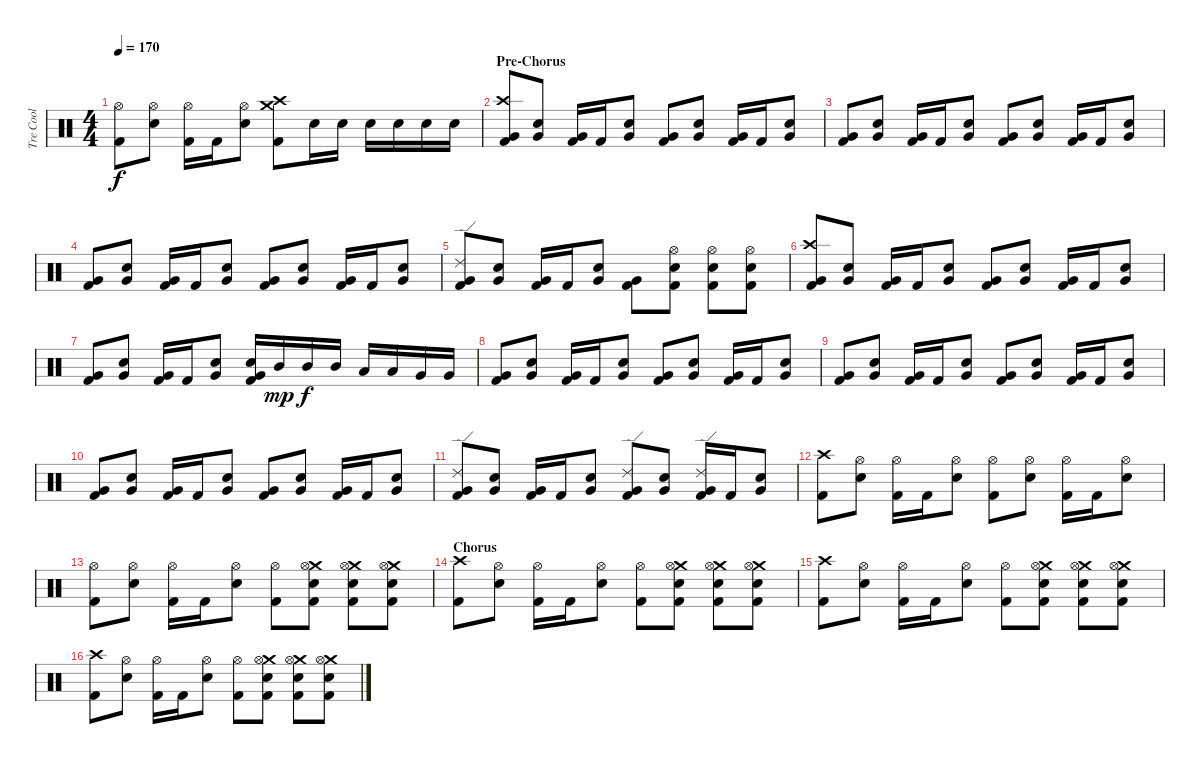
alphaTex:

\track ("Tre Cool" "Tre Cool") {instrument percussion}
\staff {score}
\articulation defaults
\ts (4 4)
\tempo 170
\clef neutral
\ks c
("Hi-Hat (open)" "Kick (hit) 2").8{dy f} ("Hi-Hat (open)" "Electric Snare (hit)").8 ("Hi-Hat (open)" "Kick (hit) 2").16 "Kick (hit) 2".16 ("Hi-Hat (open)" "Electric Snare (hit)").8 ("Crash high (hit)" "Crash medium (hit)" "Kick (hit) 2").8 "Electric Snare (hit)".16 "Electric Snare (hit)".16 "Electric Snare (hit)".16 "Electric Snare (hit)".16 "Electric Snare (hit)".16 "Electric Snare (hit)".16 |
\section ("" "Pre-Chorus")
("Crash high (hit)" "Very Low Tom (hit)" "Kick (hit) 2").8 ("Electric Snare (hit)" "Very Low Tom (hit)").8 ("Very Low Tom (hit)" "Kick (hit) 2").16 "Kick (hit) 2".16 ("Electric Snare (hit)" "Very Low Tom (hit)").8 ("Very Low Tom (hit)" "Kick (hit) 2").8 ("Electric Snare (hit)" "Very Low Tom (hit)").8 ("Very Low Tom (hit)" "Kick (hit) 2").16 "Kick (hit) 2".16 ("Electric Snare (hit)" "Very Low Tom (hit)").8 |
("Very Low Tom (hit)" "Kick (hit) 2").8 ("Electric Snare (hit)" "Very Low Tom (hit)").8 ("Very Low Tom (hit)" "Kick (hit) 2").16 "Kick (hit) 2".16 ("Electric Snare (hit)" "Very Low Tom (hit)").8 ("Very Low Tom (hit)" "Kick (hit) 2").8 ("Electric Snare (hit)" "Very Low Tom (hit)").8 ("Very Low Tom (hit)" "Kick (hit) 2").16 "Kick (hit) 2".16 ("Electric Snare (hit)" "Very Low Tom (hit)").8 |
("Very Low Tom (hit)" "Kick (hit) 2").8 ("Electric Snare (hit)" "Very Low Tom (hit)").8 ("Very Low Tom (hit)" "Kick (hit) 2").16 "Kick (hit) 2".16 ("Electric Snare (hit)" "Very Low Tom (hit)").8 ("Very Low Tom (hit)" "Kick (hit) 2").8 ("Electric Snare (hit)" "Very Low Tom (hit)").8 ("Very Low Tom (hit)" "Kick (hit) 2").16 "Kick (hit) 2".16 ("Electric Snare (hit)" "Very Low Tom (hit)").8 |
("Ride (edge) 2" "Very Low Tom (hit)" "Kick (hit) 2").8 ("Electric Snare (hit)" "Very Low Tom (hit)").8 ("Very Low Tom (hit)" "Kick (hit) 2").16 "Kick (hit) 2".16 ("Electric Snare (hit)" "Very Low Tom (hit)").8 ("Very Low Tom (hit)" "Kick (hit) 2").8 ("Hi-Hat (open)" "Electric Snare (hit)" "Kick (hit) 2").8 ("Hi-Hat (open)" "Electric Snare (hit)" "Kick (hit) 2").8 ("Hi-Hat (open)" "Electric Snare (hit)" "Kick (hit) 2").8 |
("Crash high (hit)" "Very Low Tom (hit)" "Kick (hit) 2").8 ("Electric Snare (hit)" "Very Low Tom (hit)").8 ("Very Low Tom (hit)" "Kick (hit) 2").16 "Kick (hit) 2".16 ("Electric Snare (hit)" "Very Low Tom (hit)").8 ("Very Low Tom (hit)" "Kick (hit) 2").8 ("Electric Snare (hit)" "Very Low Tom (hit)").8 ("Very Low Tom (hit)" "Kick (hit) 2").16 "Kick (hit) 2".16 ("Electric Snare (hit)" "Very Low Tom (hit)").8 |
("Very Low Tom (hit)" "Kick (hit) 2").8 ("Electric Snare (hit)" "Very Low Tom (hit)").8 ("Very Low Tom (hit)" "Kick (hit) 2").16 "Kick (hit) 2".16 ("Electric Snare (hit)" "Very Low Tom (hit)").8 ("Electric Snare (hit)" "Very Low Tom (hit)" "Kick (hit) 2").16 "Mid Tom (hit)".16{dy mp} "Mid Tom (hit)".16{dy f} "Mid Tom (hit)".16 "Low Tom (hit)".16 "Low Tom (hit)".16 "Very Low Tom (hit)".16 "Very Low Tom (hit)".16 |
("Very Low Tom (hit)" "Kick (hit) 2").8 ("Electric Snare (hit)" "Very Low Tom (hit)").8 ("Very Low Tom (hit)" "Kick (hit) 2").16 "Kick (hit) 2".16 ("Electric Snare (hit)" "Very Low Tom (hit)").8 ("Very Low Tom (hit)" "Kick (hit) 2").8 ("Electric Snare (hit)" "Very Low Tom (hit)").8 ("Very Low Tom (hit)" "Kick (hit) 2").16 "Kick (hit) 2".16 ("Electric Snare (hit)" "Very Low Tom (hit)").8 |
("Very Low Tom (hit)" "Kick (hit) 2").8 ("Electric Snare (hit)" "Very Low Tom (hit)").8 ("Very Low Tom (hit)" "Kick (hit) 2").16 "Kick (hit) 2".16 ("Electric Snare (hit)" "Very Low Tom (hit)").8 ("Very Low Tom (hit)" "Kick (hit) 2").8 ("Electric Snare (hit)" "Very Low Tom (hit)").8 ("Very Low Tom (hit)" "Kick (hit) 2").16 "Kick (hit) 2".16 ("Electric Snare (hit)" "Very Low Tom (hit)").8 |
("Very Low Tom (hit)" "Kick (hit) 2").8 ("Electric Snare (hit)" "Very Low Tom (hit)").8 ("Very Low Tom (hit)" "Kick (hit) 2").16 "Kick (hit) 2".16 ("Electric Snare (hit)" "Very Low Tom (hit)").8 ("Very Low Tom (hit)" "Kick (hit) 2").8 ("Electric Snare (hit)" "Very Low Tom (hit)").8 ("Very Low Tom (hit)" "Kick (hit) 2").16 "Kick (hit) 2".16 ("Electric Snare (hit)" "Very Low Tom (hit)").8 |
("Ride (edge) 2" "Very Low Tom (hit)" "Kick (hit) 2").8 ("Electric Snare (hit)" "Very Low Tom (hit)").8 ("Very Low Tom (hit)" "Kick (hit) 2").16 "Kick (hit) 2".16 ("Electric Snare (hit)" "Very Low Tom (hit)").8 ("Ride (edge) 2" "Very Low Tom (hit)" "Kick (hit) 2").8 ("Electric Snare (hit)" "Very Low Tom (hit)").8 ("Ride (edge) 2" "Very Low Tom (hit)" "Kick (hit) 2").16 "Kick (hit) 2".16 ("Electric Snare (hit)" "Very Low Tom (hit)").8 |
("Crash high (hit)" "Kick (hit) 2").8 ("Hi-Hat (open)" "Electric Snare (hit)").8 ("Hi-Hat (open)" "Kick (hit) 2").16 "Kick (hit) 2".16 ("Hi-Hat (open)" "Electric Snare (hit)").8 ("Hi-Hat (open)" "Kick (hit) 2").8 ("Hi-Hat (open)" "Electric Snare (hit)").8 ("Hi-Hat (open)" "Kick (hit) 2").16 "Kick (hit) 2".16 ("Hi-Hat (open)" "Electric Snare (hit)").8 |
("Hi-Hat (open)" "Kick (hit) 2").8 ("Hi-Hat (open)" "Electric Snare (hit)").8 ("Hi-Hat (open)" "Kick (hit) 2").16 "Kick (hit) 2".16 ("Hi-Hat (open)" "Electric Snare (hit)").8 ("Hi-Hat (open)" "Kick (hit) 2").8 ("Crash medium (hit)" "Hi-Hat (open)" "Electric Snare (hit)" "Kick (hit) 2").8 ("Crash medium (hit)" "Hi-Hat (open)" "Electric Snare (hit)" "Kick (hit) 2").8 ("Crash medium (hit)" "Hi-Hat (open)" "Electric Snare (hit)" "Kick (hit) 2").8 |
\section ("" "Chorus")
("Crash high (hit)" "Kick (hit) 2").8 ("Hi-Hat (open)" "Electric Snare (hit)").8 ("Hi-Hat (open)" "Kick (hit) 2").16 "Kick (hit) 2".16 ("Hi-Hat (open)" "Electric Snare (hit)").8 ("Hi-Hat (open)" "Kick (hit) 2").8 ("Crash medium (hit)" "Hi-Hat (open)" "Electric Snare (hit)" "Kick (hit) 2").8 ("Crash medium (hit)" "Hi-Hat (open)" "Electric Snare (hit)" "Kick (hit) 2").8 ("Crash medium (hit)" "Hi-Hat (open)" "Electric Snare (hit)" "Kick (hit) 2").8 |
("Crash high (hit)" "Kick (hit) 2").8 ("Hi-Hat (open)" "Electric Snare (hit)").8 ("Hi-Hat (open)" "Kick (hit) 2").16 "Kick (hit) 2".16 ("Hi-Hat (open)" "Electric Snare (hit)").8 ("Hi-Hat (open)" "Kick (hit) 2").8 ("Crash medium (hit)" "Hi-Hat (open)" "Electric Snare (hit)" "Kick (hit) 2").8 ("Crash medium (hit)" "Hi-Hat (open)" "Electric Snare (hit)" "Kick (hit) 2").8 ("Crash medium (hit)" "Hi-Hat (open)" "Electric Snare (hit)" "Kick (hit) 2").8 |
("Crash high (hit)" "Kick (hit) 2").8 ("Hi-Hat (open)" "Electric Snare (hit)").8 ("Hi-Hat (open)" "Kick (hit) 2").16 "Kick (hit) 2".16 ("Hi-Hat (open)" "Electric Snare (hit)").8 ("Hi-Hat (open)" "Kick (hit) 2").8 ("Crash medium (hit)" "Hi-Hat (open)" "Electric Snare (hit)" "Kick (hit) 2").8 ("Crash medium (hit)" "Hi-Hat (open)" "Electric Snare (hit)" "Kick (hit) 2").8 ("Crash medium (hit)" "Hi-Hat (open)" "Electric Snare (hit)" "Kick (hit) 2").8
